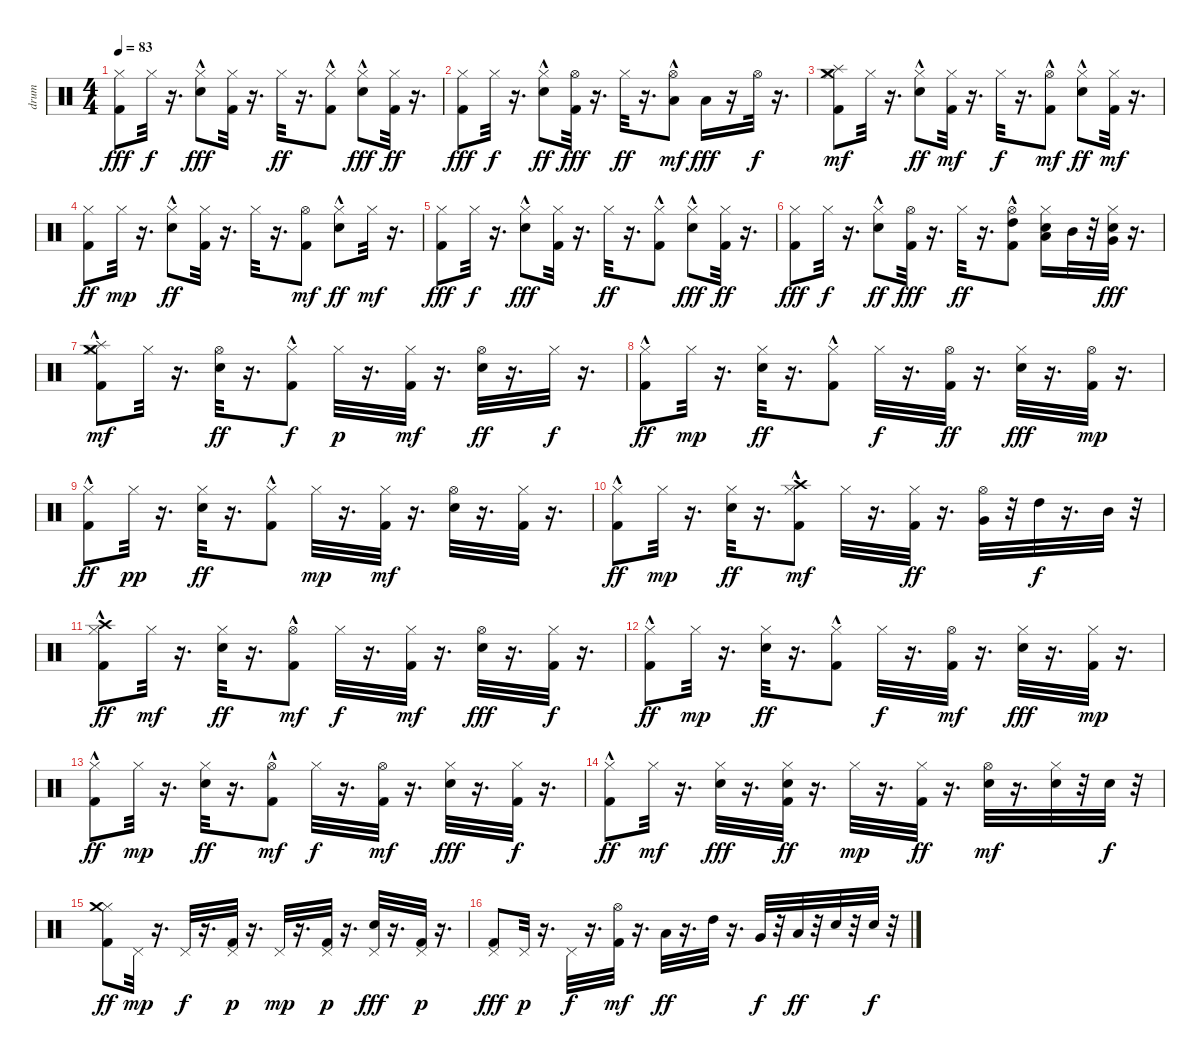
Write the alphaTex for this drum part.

\track ("drum" "drum") {instrument percussion}
\staff {score}
\articulation defaults
\ts (4 4)
\tempo 83
\clef neutral
\ks c
("Kick (hit) 2" "Hi-Hat (closed)").8{dy fff} "Hi-Hat (closed)".32{dy f} r.16{d} ("Electric Snare (hit)"{hac} "Hi-Hat (closed)").8{dy fff} ("Kick (hit) 2" "Hi-Hat (closed)").32 r.16{d} "Hi-Hat (closed)".32{dy ff} r.16{d} ("Kick (hit) 2"{hac} "Hi-Hat (closed)").8 ("Electric Snare (hit)"{hac} "Hi-Hat (closed)").8{dy fff} ("Kick (hit) 2" "Hi-Hat (closed)").32{dy ff} r.16{d} |
("Kick (hit) 2" "Hi-Hat (closed)").8{dy fff} "Hi-Hat (closed)".32{dy f} r.16{d} ("Electric Snare (hit)"{hac} "Hi-Hat (closed)").8{dy ff} ("Kick (hit) 2" "Hi-Hat (open)").32{dy fff} r.16{d} "Hi-Hat (closed)".32{dy ff} r.16{d} ("Low Floor Tom (hit)"{hac} "Hi-Hat (open)").8{dy mf} "Low Tom (hit)".16{dy fff} r.16 "Hi-Hat (open)".32{dy f} r.16{d} |
("Kick (hit) 2" "Hi-Hat (closed)" "Splash (hit)" "Crash medium (hit)").8{dy mf} "Hi-Hat (closed)".32 r.16{d} ("Electric Snare (hit)"{hac} "Hi-Hat (closed)").8{dy ff} ("Kick (hit) 2" "Hi-Hat (closed)").32{dy mf} r.16{d} "Hi-Hat (closed)".32{dy f} r.16{d} ("Kick (hit) 2"{hac} "Hi-Hat (open)").8{dy mf} ("Electric Snare (hit)"{hac} "Hi-Hat (closed)").8{dy ff} ("Kick (hit) 2" "Hi-Hat (closed)").32{dy mf} r.16{d} |
("Kick (hit) 2" "Hi-Hat (closed)").8{dy ff} "Hi-Hat (closed)".32{dy mp} r.16{d} ("Electric Snare (hit)"{hac} "Hi-Hat (closed)").8{dy ff} ("Kick (hit) 2" "Hi-Hat (closed)").32 r.16{d} "Hi-Hat (closed)".32 r.16{d} ("Kick (hit) 2" "Hi-Hat (open)").8{dy mf} ("Electric Snare (hit)"{hac} "Hi-Hat (closed)").8{dy ff} "Hi-Hat (closed)".32{dy mf} r.16{d} |
("Kick (hit) 2" "Hi-Hat (closed)").8{dy fff} "Hi-Hat (closed)".32{dy f} r.16{d} ("Electric Snare (hit)"{hac} "Hi-Hat (closed)").8{dy fff} ("Kick (hit) 2" "Hi-Hat (closed)").32 r.16{d} "Hi-Hat (closed)".32{dy ff} r.16{d} ("Kick (hit) 2"{hac} "Hi-Hat (closed)").8 ("Electric Snare (hit)"{hac} "Hi-Hat (closed)").8{dy fff} ("Kick (hit) 2" "Hi-Hat (closed)").32{dy ff} r.16{d} |
("Kick (hit) 2" "Hi-Hat (closed)").8{dy fff} "Hi-Hat (closed)".32{dy f} r.16{d} ("Electric Snare (hit)"{hac} "Hi-Hat (closed)").8{dy ff} ("Kick (hit) 2" "Hi-Hat (open)").32{dy fff} r.16{d} "Hi-Hat (closed)".32{dy ff} r.16{d} ("Kick (hit) 2"{hac} "Hi-Hat (open)" "High Tom (hit)").8 ("Electric Snare (hit)" "Hi-Hat (closed)" "Low Tom (hit)").16 "Mid Tom (hit)".32 r.32 ("Electric Snare (hit)" "Hi-Hat (closed)" "Very Low Tom (hit)").32{dy fff} r.16{d} |
("Kick (hit) 2"{hac} "Hi-Hat (closed)" "Splash (hit)" "Crash medium (hit)").8{dy mf} "Hi-Hat (closed)".32 r.16{d} ("Electric Snare (hit)" "Hi-Hat (open)").32{dy ff} r.16{d} ("Kick (hit) 2"{hac} "Hi-Hat (closed)").8{dy f} "Hi-Hat (closed)".32{dy p} r.16{d} ("Kick (hit) 2" "Hi-Hat (closed)").32{dy mf} r.16{d} ("Electric Snare (hit)" "Hi-Hat (open)").32{dy ff} r.16{d} "Hi-Hat (closed)".32{dy f} r.16{d} |
("Kick (hit) 2"{hac} "Hi-Hat (closed)").8{dy ff} "Hi-Hat (closed)".32{dy mp} r.16{d} ("Electric Snare (hit)" "Hi-Hat (closed)").32{dy ff} r.16{d} ("Kick (hit) 2"{hac} "Hi-Hat (closed)").8 "Hi-Hat (closed)".32{dy f} r.16{d} ("Kick (hit) 2" "Hi-Hat (open)").32{dy ff} r.16{d} ("Electric Snare (hit)" "Hi-Hat (closed)").32{dy fff} r.16{d} ("Kick (hit) 2" "Hi-Hat (open)").32{dy mp} r.16{d} |
("Kick (hit) 2"{hac} "Hi-Hat (closed)").8{dy ff} "Hi-Hat (closed)".32{dy pp} r.16{d} ("Electric Snare (hit)" "Hi-Hat (closed)").32{dy ff} r.16{d} ("Kick (hit) 2"{hac} "Hi-Hat (closed)").8 "Hi-Hat (closed)".32{dy mp} r.16{d} ("Kick (hit) 2" "Hi-Hat (closed)").32{dy mf} r.16{d} ("Electric Snare (hit)" "Hi-Hat (open)").32 r.16{d} ("Kick (hit) 2" "Hi-Hat (closed)").32 r.16{d} |
("Kick (hit) 2"{hac} "Hi-Hat (closed)").8{dy ff} "Hi-Hat (closed)".32{dy mp} r.16{d} ("Electric Snare (hit)" "Hi-Hat (closed)").32{dy ff} r.16{d} ("Kick (hit) 2"{hac} "Hi-Hat (closed)" "Crash high (hit)"{hac}).8{dy mf} "Hi-Hat (closed)".32 r.16{d} ("Kick (hit) 2" "Hi-Hat (closed)").32{dy ff} r.16{d} ("Very Low Tom (hit)" "Hi-Hat (open)").32 r.32 "High Tom (hit)".32{dy f} r.16{d} "Mid Tom (hit)".32 r.32 |
("Kick (hit) 2"{hac} "Hi-Hat (closed)" "Crash high (hit)").8{dy ff} "Hi-Hat (closed)".32{dy mf} r.16{d} ("Electric Snare (hit)" "Hi-Hat (closed)").32{dy ff} r.16{d} ("Kick (hit) 2"{hac} "Hi-Hat (open)").8{dy mf} "Hi-Hat (closed)".32{dy f} r.16{d} ("Kick (hit) 2" "Hi-Hat (closed)").32{dy mf} r.16{d} ("Electric Snare (hit)" "Hi-Hat (open)").32{dy fff} r.16{d} ("Kick (hit) 2" "Hi-Hat (closed)").32{dy f} r.16{d} |
("Kick (hit) 2"{hac} "Hi-Hat (closed)").8{dy ff} "Hi-Hat (closed)".32{dy mp} r.16{d} ("Electric Snare (hit)" "Hi-Hat (closed)").32{dy ff} r.16{d} ("Kick (hit) 2"{hac} "Hi-Hat (closed)").8 "Hi-Hat (closed)".32{dy f} r.16{d} ("Kick (hit) 2" "Hi-Hat (open)").32{dy mf} r.16{d} ("Electric Snare (hit)" "Hi-Hat (closed)").32{dy fff} r.16{d} ("Kick (hit) 2" "Hi-Hat (closed)").32{dy mp} r.16{d} |
("Kick (hit) 2"{hac} "Hi-Hat (closed)").8{dy ff} "Hi-Hat (closed)".32{dy mp} r.16{d} ("Electric Snare (hit)" "Hi-Hat (closed)").32{dy ff} r.16{d} ("Kick (hit) 2"{hac} "Hi-Hat (open)").8{dy mf} "Hi-Hat (closed)".32{dy f} r.16{d} ("Kick (hit) 2" "Hi-Hat (open)").32{dy mf} r.16{d} ("Electric Snare (hit)" "Hi-Hat (closed)").32{dy fff} r.16{d} ("Kick (hit) 2" "Hi-Hat (closed)").32{dy f} r.16{d} |
("Kick (hit) 2"{hac} "Hi-Hat (closed)").8{dy ff} "Hi-Hat (closed)".32{dy mf} r.16{d} ("Electric Snare (hit)" "Hi-Hat (closed)").32{dy fff} r.16{d} ("Kick (hit) 2" "Electric Snare (hit)" "Hi-Hat (closed)").32{dy ff} r.16{d} "Hi-Hat (closed)".32{dy mp} r.16{d} ("Kick (hit) 2" "Hi-Hat (closed)").32{dy ff} r.16{d} ("Electric Snare (hit)" "Hi-Hat (open)").32{dy mf} r.16{d} ("Electric Snare (hit)" "Hi-Hat (closed)").32 r.32 "Electric Snare (hit)".32{dy f} r.32 |
("Kick (hit) 2" "Hi-Hat (closed)" "Crash medium (hit)").8{dy ff} "Pedal Hi-Hat (hit)".32{dy mp} r.16{d} "Pedal Hi-Hat (hit)".32{dy f} r.16{d} ("Kick (hit) 2" "Pedal Hi-Hat (hit)").32{dy p} r.16{d} "Pedal Hi-Hat (hit)".32{dy mp} r.16{d} ("Kick (hit) 2" "Pedal Hi-Hat (hit)").32{dy p} r.16{d} ("Electric Snare (hit)" "Pedal Hi-Hat (hit)").32{dy fff} r.16{d} ("Kick (hit) 2" "Pedal Hi-Hat (hit)").32{dy p} r.16{d} |
("Kick (hit) 2" "Pedal Hi-Hat (hit)").8{dy fff} "Pedal Hi-Hat (hit)".32{dy p} r.16{d} "Pedal Hi-Hat (hit)".32{dy f} r.16{d} ("Kick (hit) 2" "Hi-Hat (open)").32{dy mf} r.16{d} "Low Tom (hit)".32{dy ff} r.16{d} "High Tom (hit)".32 r.16{d} "Very Low Tom (hit)".32{dy f} r.32 "Low Floor Tom (hit)".32{dy ff} r.32 "Electric Snare (hit)".32 r.32 "Electric Snare (hit)".32{dy f} r.32
